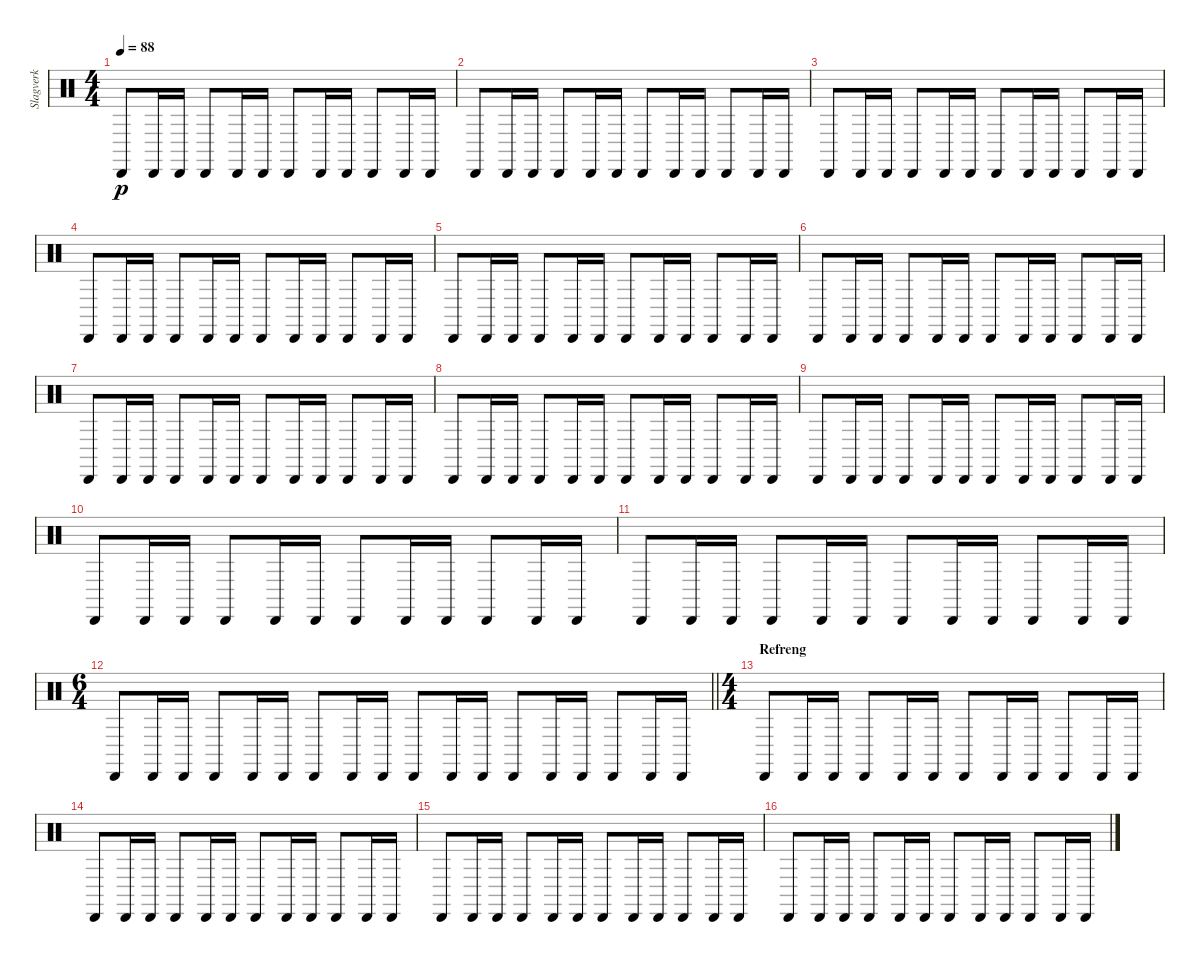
\track ("Slagverk" "Slagverk") {instrument percussion}
\staff {score}
\articulation defaults
\ts (4 4)
\tempo 88
\clef neutral
\ks c "Cabasa (hit)".8{dy p} "Cabasa (hit)".16 "Cabasa (hit)".16 "Cabasa (hit)".8 "Cabasa (hit)".16 "Cabasa (hit)".16 "Cabasa (hit)".8 "Cabasa (hit)".16 "Cabasa (hit)".16 "Cabasa (hit)".8 "Cabasa (hit)".16 "Cabasa (hit)".16
|
"Cabasa (hit)".8 "Cabasa (hit)".16 "Cabasa (hit)".16 "Cabasa (hit)".8 "Cabasa (hit)".16 "Cabasa (hit)".16 "Cabasa (hit)".8 "Cabasa (hit)".16 "Cabasa (hit)".16 "Cabasa (hit)".8 "Cabasa (hit)".16 "Cabasa (hit)".16 |
"Cabasa (hit)".8 "Cabasa (hit)".16 "Cabasa (hit)".16 "Cabasa (hit)".8 "Cabasa (hit)".16 "Cabasa (hit)".16 "Cabasa (hit)".8 "Cabasa (hit)".16 "Cabasa (hit)".16 "Cabasa (hit)".8 "Cabasa (hit)".16 "Cabasa (hit)".16 |
"Cabasa (hit)".8 "Cabasa (hit)".16 "Cabasa (hit)".16 "Cabasa (hit)".8 "Cabasa (hit)".16 "Cabasa (hit)".16 "Cabasa (hit)".8 "Cabasa (hit)".16 "Cabasa (hit)".16 "Cabasa (hit)".8 "Cabasa (hit)".16 "Cabasa (hit)".16 |
"Cabasa (hit)".8 "Cabasa (hit)".16 "Cabasa (hit)".16 "Cabasa (hit)".8 "Cabasa (hit)".16 "Cabasa (hit)".16 "Cabasa (hit)".8 "Cabasa (hit)".16 "Cabasa (hit)".16 "Cabasa (hit)".8 "Cabasa (hit)".16 "Cabasa (hit)".16 |
"Cabasa (hit)".8 "Cabasa (hit)".16 "Cabasa (hit)".16 "Cabasa (hit)".8 "Cabasa (hit)".16 "Cabasa (hit)".16 "Cabasa (hit)".8 "Cabasa (hit)".16 "Cabasa (hit)".16 "Cabasa (hit)".8 "Cabasa (hit)".16 "Cabasa (hit)".16 |
"Cabasa (hit)".8 "Cabasa (hit)".16 "Cabasa (hit)".16 "Cabasa (hit)".8 "Cabasa (hit)".16 "Cabasa (hit)".16 "Cabasa (hit)".8 "Cabasa (hit)".16 "Cabasa (hit)".16 "Cabasa (hit)".8 "Cabasa (hit)".16 "Cabasa (hit)".16 |
"Cabasa (hit)".8 "Cabasa (hit)".16 "Cabasa (hit)".16 "Cabasa (hit)".8 "Cabasa (hit)".16 "Cabasa (hit)".16 "Cabasa (hit)".8 "Cabasa (hit)".16 "Cabasa (hit)".16 "Cabasa (hit)".8 "Cabasa (hit)".16 "Cabasa (hit)".16 |
"Cabasa (hit)".8 "Cabasa (hit)".16 "Cabasa (hit)".16 "Cabasa (hit)".8 "Cabasa (hit)".16 "Cabasa (hit)".16 "Cabasa (hit)".8 "Cabasa (hit)".16 "Cabasa (hit)".16 "Cabasa (hit)".8 "Cabasa (hit)".16 "Cabasa (hit)".16 |
"Cabasa (hit)".8 "Cabasa (hit)".16 "Cabasa (hit)".16 "Cabasa (hit)".8 "Cabasa (hit)".16 "Cabasa (hit)".16 "Cabasa (hit)".8 "Cabasa (hit)".16 "Cabasa (hit)".16 "Cabasa (hit)".8 "Cabasa (hit)".16 "Cabasa (hit)".16 |
"Cabasa (hit)".8 "Cabasa (hit)".16 "Cabasa (hit)".16 "Cabasa (hit)".8 "Cabasa (hit)".16 "Cabasa (hit)".16 "Cabasa (hit)".8 "Cabasa (hit)".16 "Cabasa (hit)".16 "Cabasa (hit)".8 "Cabasa (hit)".16 "Cabasa (hit)".16 |
\ts (6 4)
\barLineRight lightlight "Cabasa (hit)".8 "Cabasa (hit)".16 "Cabasa (hit)".16 "Cabasa (hit)".8 "Cabasa (hit)".16 "Cabasa (hit)".16 "Cabasa (hit)".8 "Cabasa (hit)".16 "Cabasa (hit)".16 "Cabasa (hit)".8 "Cabasa (hit)".16 "Cabasa (hit)".16 "Cabasa (hit)".8 "Cabasa (hit)".16 "Cabasa (hit)".16 "Cabasa (hit)".8 "Cabasa (hit)".16 "Cabasa (hit)".16
|
\ts (4 4)
\section ("" "Refreng")
"Cabasa (hit)".8 "Cabasa (hit)".16 "Cabasa (hit)".16 "Cabasa (hit)".8 "Cabasa (hit)".16 "Cabasa (hit)".16 "Cabasa (hit)".8 "Cabasa (hit)".16 "Cabasa (hit)".16 "Cabasa (hit)".8 "Cabasa (hit)".16 "Cabasa (hit)".16 |
"Cabasa (hit)".8 "Cabasa (hit)".16 "Cabasa (hit)".16 "Cabasa (hit)".8 "Cabasa (hit)".16 "Cabasa (hit)".16 "Cabasa (hit)".8 "Cabasa (hit)".16 "Cabasa (hit)".16 "Cabasa (hit)".8 "Cabasa (hit)".16 "Cabasa (hit)".16 |
"Cabasa (hit)".8 "Cabasa (hit)".16 "Cabasa (hit)".16 "Cabasa (hit)".8 "Cabasa (hit)".16 "Cabasa (hit)".16 "Cabasa (hit)".8 "Cabasa (hit)".16 "Cabasa (hit)".16 "Cabasa (hit)".8 "Cabasa (hit)".16 "Cabasa (hit)".16 |
"Cabasa (hit)".8 "Cabasa (hit)".16 "Cabasa (hit)".16 "Cabasa (hit)".8 "Cabasa (hit)".16 "Cabasa (hit)".16 "Cabasa (hit)".8 "Cabasa (hit)".16 "Cabasa (hit)".16 "Cabasa (hit)".8 "Cabasa (hit)".16 "Cabasa (hit)".16
